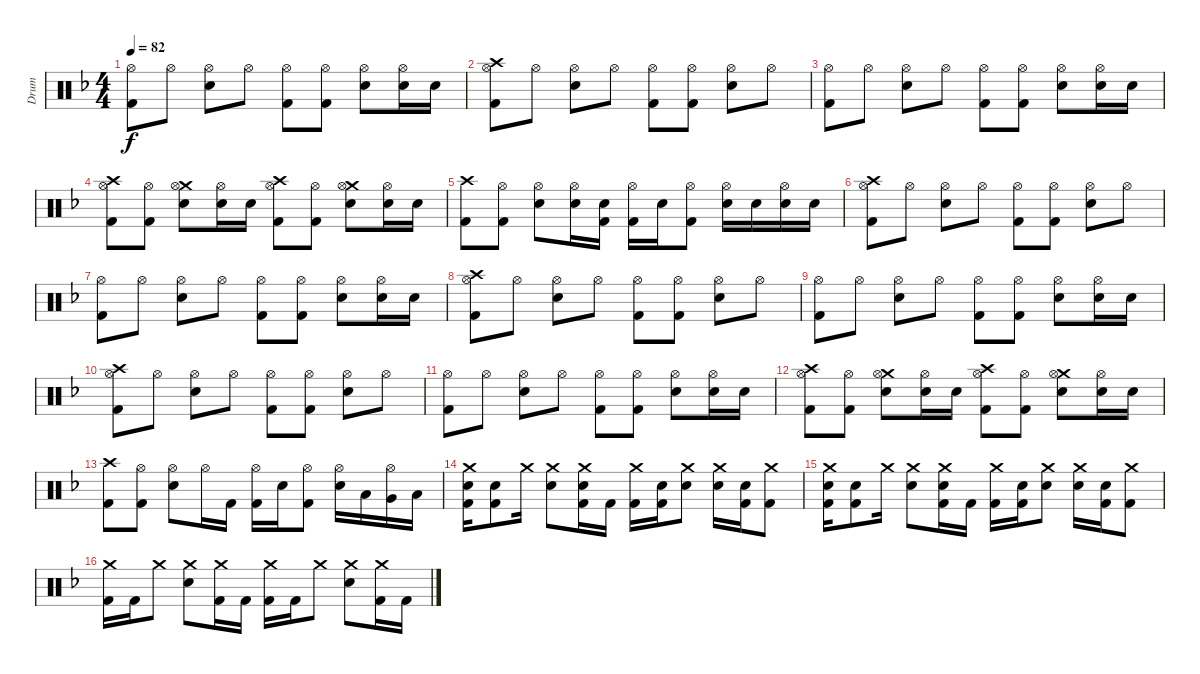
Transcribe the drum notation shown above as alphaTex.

\track ("Drum" "Drum") {instrument percussion}
\staff {score}
\articulation defaults
\ts (4 4)
\tempo 82
\clef neutral
\ks f
("Hi-Hat (open)" "Kick (hit) 2").8{dy f} "Hi-Hat (open)".8 ("Hi-Hat (open)" "Electric Snare (hit)").8 "Hi-Hat (open)".8 ("Hi-Hat (open)" "Kick (hit) 2").8 ("Hi-Hat (open)" "Kick (hit) 2").8 ("Hi-Hat (open)" "Electric Snare (hit)").8 ("Hi-Hat (open)" "Electric Snare (hit)").16 "Electric Snare (hit)".16 |
("Crash high (hit)" "Hi-Hat (open)" "Kick (hit) 2").8 "Hi-Hat (open)".8 ("Hi-Hat (open)" "Electric Snare (hit)").8 "Hi-Hat (open)".8 ("Hi-Hat (open)" "Kick (hit) 2").8 ("Hi-Hat (open)" "Kick (hit) 2").8 ("Hi-Hat (open)" "Electric Snare (hit)").8 "Hi-Hat (open)".8 |
("Hi-Hat (open)" "Kick (hit) 2").8 "Hi-Hat (open)".8 ("Hi-Hat (open)" "Electric Snare (hit)").8 "Hi-Hat (open)".8 ("Hi-Hat (open)" "Kick (hit) 2").8 ("Hi-Hat (open)" "Kick (hit) 2").8 ("Hi-Hat (open)" "Electric Snare (hit)").8 ("Hi-Hat (open)" "Electric Snare (hit)").16 "Electric Snare (hit)".16 |
("Crash high (hit)" "Hi-Hat (open)" "Kick (hit) 2").8 ("Hi-Hat (open)" "Kick (hit) 2").8 ("Crash medium (hit)" "Hi-Hat (open)" "Electric Snare (hit)").8 ("Hi-Hat (open)" "Electric Snare (hit)").16 "Electric Snare (hit)".16 ("Crash high (hit)" "Hi-Hat (open)" "Kick (hit) 2").8 ("Hi-Hat (open)" "Kick (hit) 2").8 ("Crash medium (hit)" "Hi-Hat (open)" "Electric Snare (hit)").8 ("Hi-Hat (open)" "Electric Snare (hit)").16 "Electric Snare (hit)".16 |
("Crash high (hit)" "Kick (hit) 2").8 ("Hi-Hat (open)" "Kick (hit) 2").8 ("Hi-Hat (open)" "Electric Snare (hit)").8 ("Hi-Hat (open)" "Electric Snare (hit)").16 ("Electric Snare (hit)" "Kick (hit) 2").16 ("Hi-Hat (open)" "Kick (hit) 2").16 "Electric Snare (hit)".16 ("Hi-Hat (open)" "Kick (hit) 2").8 ("Hi-Hat (open)" "Electric Snare (hit)").16 "Electric Snare (hit)".16 ("Hi-Hat (open)" "Electric Snare (hit)").16 "Electric Snare (hit)".16 |
("Crash high (hit)" "Hi-Hat (open)" "Kick (hit) 2").8 "Hi-Hat (open)".8 ("Hi-Hat (open)" "Electric Snare (hit)").8 "Hi-Hat (open)".8 ("Hi-Hat (open)" "Kick (hit) 2").8 ("Hi-Hat (open)" "Kick (hit) 2").8 ("Hi-Hat (open)" "Electric Snare (hit)").8 "Hi-Hat (open)".8 |
("Hi-Hat (open)" "Kick (hit) 2").8 "Hi-Hat (open)".8 ("Hi-Hat (open)" "Electric Snare (hit)").8 "Hi-Hat (open)".8 ("Hi-Hat (open)" "Kick (hit) 2").8 ("Hi-Hat (open)" "Kick (hit) 2").8 ("Hi-Hat (open)" "Electric Snare (hit)").8 ("Hi-Hat (open)" "Electric Snare (hit)").16 "Electric Snare (hit)".16 |
("Crash high (hit)" "Hi-Hat (open)" "Kick (hit) 2").8 "Hi-Hat (open)".8 ("Hi-Hat (open)" "Electric Snare (hit)").8 "Hi-Hat (open)".8 ("Hi-Hat (open)" "Kick (hit) 2").8 ("Hi-Hat (open)" "Kick (hit) 2").8 ("Hi-Hat (open)" "Electric Snare (hit)").8 "Hi-Hat (open)".8 |
("Hi-Hat (open)" "Kick (hit) 2").8 "Hi-Hat (open)".8 ("Hi-Hat (open)" "Electric Snare (hit)").8 "Hi-Hat (open)".8 ("Hi-Hat (open)" "Kick (hit) 2").8 ("Hi-Hat (open)" "Kick (hit) 2").8 ("Hi-Hat (open)" "Electric Snare (hit)").8 ("Hi-Hat (open)" "Electric Snare (hit)").16 "Electric Snare (hit)".16 |
("Crash high (hit)" "Hi-Hat (open)" "Kick (hit) 2").8 "Hi-Hat (open)".8 ("Hi-Hat (open)" "Electric Snare (hit)").8 "Hi-Hat (open)".8 ("Hi-Hat (open)" "Kick (hit) 2").8 ("Hi-Hat (open)" "Kick (hit) 2").8 ("Hi-Hat (open)" "Electric Snare (hit)").8 "Hi-Hat (open)".8 |
("Hi-Hat (open)" "Kick (hit) 2").8 "Hi-Hat (open)".8 ("Hi-Hat (open)" "Electric Snare (hit)").8 "Hi-Hat (open)".8 ("Hi-Hat (open)" "Kick (hit) 2").8 ("Hi-Hat (open)" "Kick (hit) 2").8 ("Hi-Hat (open)" "Electric Snare (hit)").8 ("Hi-Hat (open)" "Electric Snare (hit)").16 "Electric Snare (hit)".16 |
("Crash high (hit)" "Hi-Hat (open)" "Kick (hit) 2").8 ("Hi-Hat (open)" "Kick (hit) 2").8 ("Crash medium (hit)" "Hi-Hat (open)" "Electric Snare (hit)").8 ("Hi-Hat (open)" "Electric Snare (hit)").16 "Electric Snare (hit)".16 ("Crash high (hit)" "Hi-Hat (open)" "Kick (hit) 2").8 ("Hi-Hat (open)" "Kick (hit) 2").8 ("Crash medium (hit)" "Hi-Hat (open)" "Electric Snare (hit)").8 ("Hi-Hat (open)" "Electric Snare (hit)").16 "Electric Snare (hit)".16 |
("Crash high (hit)" "Kick (hit) 2").8 ("Hi-Hat (open)" "Kick (hit) 2").8 ("Hi-Hat (open)" "Electric Snare (hit)").8 "Hi-Hat (open)".16 "Kick (hit) 2".16 ("Hi-Hat (open)" "Kick (hit) 2").16 "Electric Snare (hit)".16 ("Hi-Hat (open)" "Kick (hit) 2").8 ("Hi-Hat (open)" "Electric Snare (hit)").16 "Low Tom (hit)".16 ("Hi-Hat (open)" "Very Low Tom (hit)").16 "Low Floor Tom (hit)".16 |
("Crash medium (hit)" "Electric Snare (hit)" "Kick (hit) 2").16 ("Electric Snare (hit)" "Kick (hit) 2").8 "Crash medium (hit)".16 ("Crash medium (hit)" "Electric Snare (hit)").8 ("Crash medium (hit)" "Electric Snare (hit)" "Kick (hit) 2").16 "Kick (hit) 2".16 ("Crash medium (hit)" "Kick (hit) 2").16 ("Electric Snare (hit)" "Kick (hit) 2").16 ("Crash medium (hit)" "Electric Snare (hit)").8 ("Crash medium (hit)" "Electric Snare (hit)").16 ("Electric Snare (hit)" "Kick (hit) 2").16 ("Crash medium (hit)" "Kick (hit) 2").8 |
("Crash medium (hit)" "Electric Snare (hit)" "Kick (hit) 2").16 ("Electric Snare (hit)" "Kick (hit) 2").8 "Crash medium (hit)".16 ("Crash medium (hit)" "Electric Snare (hit)").8 ("Crash medium (hit)" "Electric Snare (hit)" "Kick (hit) 2").16 "Kick (hit) 2".16 ("Crash medium (hit)" "Kick (hit) 2").16 ("Electric Snare (hit)" "Kick (hit) 2").16 ("Crash medium (hit)" "Electric Snare (hit)").8 ("Crash medium (hit)" "Electric Snare (hit)").16 ("Electric Snare (hit)" "Kick (hit) 2").16 ("Crash medium (hit)" "Kick (hit) 2").8 |
("Crash medium (hit)" "Kick (hit) 2").16 "Kick (hit) 2".16 "Crash medium (hit)".8 ("Crash medium (hit)" "Electric Snare (hit)").8 ("Crash medium (hit)" "Kick (hit) 2").16 "Kick (hit) 2".16 ("Crash medium (hit)" "Kick (hit) 2").16 "Kick (hit) 2".16 "Crash medium (hit)".8 ("Crash medium (hit)" "Electric Snare (hit)").8 ("Crash medium (hit)" "Kick (hit) 2").16 "Kick (hit) 2".16
